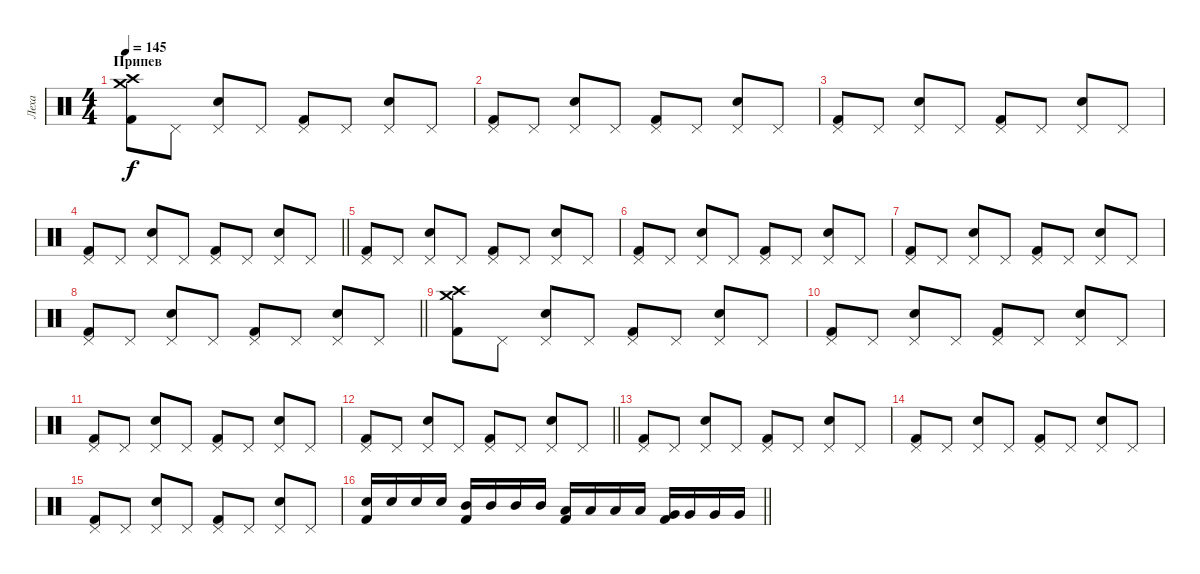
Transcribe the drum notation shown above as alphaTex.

\track ("Леха" "Леха") {instrument percussion}
\staff {score}
\articulation defaults
\ts (4 4)
\section ("" "Припев")
\tempo 145
\clef neutral
\ks c
("Crash medium (hit)" "Crash high (hit)" "Kick (hit) 2").8{dy f} "Pedal Hi-Hat (hit)".8 ("Pedal Hi-Hat (hit)" "Electric Snare (hit)").8 "Pedal Hi-Hat (hit)".8 ("Pedal Hi-Hat (hit)" "Kick (hit) 2").8 "Pedal Hi-Hat (hit)".8 ("Pedal Hi-Hat (hit)" "Electric Snare (hit)").8 "Pedal Hi-Hat (hit)".8 |
("Pedal Hi-Hat (hit)" "Kick (hit) 2").8 "Pedal Hi-Hat (hit)".8 ("Pedal Hi-Hat (hit)" "Electric Snare (hit)").8 "Pedal Hi-Hat (hit)".8 ("Pedal Hi-Hat (hit)" "Kick (hit) 2").8 "Pedal Hi-Hat (hit)".8 ("Pedal Hi-Hat (hit)" "Electric Snare (hit)").8 "Pedal Hi-Hat (hit)".8 |
("Pedal Hi-Hat (hit)" "Kick (hit) 2").8 "Pedal Hi-Hat (hit)".8 ("Pedal Hi-Hat (hit)" "Electric Snare (hit)").8 "Pedal Hi-Hat (hit)".8 ("Pedal Hi-Hat (hit)" "Kick (hit) 2").8 "Pedal Hi-Hat (hit)".8 ("Pedal Hi-Hat (hit)" "Electric Snare (hit)").8 "Pedal Hi-Hat (hit)".8 |
\barLineRight lightlight
("Pedal Hi-Hat (hit)" "Kick (hit) 2").8 "Pedal Hi-Hat (hit)".8 ("Pedal Hi-Hat (hit)" "Electric Snare (hit)").8 "Pedal Hi-Hat (hit)".8 ("Pedal Hi-Hat (hit)" "Kick (hit) 2").8 "Pedal Hi-Hat (hit)".8 ("Pedal Hi-Hat (hit)" "Electric Snare (hit)").8 "Pedal Hi-Hat (hit)".8 |
("Pedal Hi-Hat (hit)" "Kick (hit) 2").8 "Pedal Hi-Hat (hit)".8 ("Pedal Hi-Hat (hit)" "Electric Snare (hit)").8 "Pedal Hi-Hat (hit)".8 ("Pedal Hi-Hat (hit)" "Kick (hit) 2").8 "Pedal Hi-Hat (hit)".8 ("Pedal Hi-Hat (hit)" "Electric Snare (hit)").8 "Pedal Hi-Hat (hit)".8 |
("Pedal Hi-Hat (hit)" "Kick (hit) 2").8 "Pedal Hi-Hat (hit)".8 ("Pedal Hi-Hat (hit)" "Electric Snare (hit)").8 "Pedal Hi-Hat (hit)".8 ("Pedal Hi-Hat (hit)" "Kick (hit) 2").8 "Pedal Hi-Hat (hit)".8 ("Pedal Hi-Hat (hit)" "Electric Snare (hit)").8 "Pedal Hi-Hat (hit)".8 |
("Pedal Hi-Hat (hit)" "Kick (hit) 2").8 "Pedal Hi-Hat (hit)".8 ("Pedal Hi-Hat (hit)" "Electric Snare (hit)").8 "Pedal Hi-Hat (hit)".8 ("Pedal Hi-Hat (hit)" "Kick (hit) 2").8 "Pedal Hi-Hat (hit)".8 ("Pedal Hi-Hat (hit)" "Electric Snare (hit)").8 "Pedal Hi-Hat (hit)".8 |
\barLineRight lightlight
("Pedal Hi-Hat (hit)" "Kick (hit) 2").8 "Pedal Hi-Hat (hit)".8 ("Pedal Hi-Hat (hit)" "Electric Snare (hit)").8 "Pedal Hi-Hat (hit)".8 ("Pedal Hi-Hat (hit)" "Kick (hit) 2").8 "Pedal Hi-Hat (hit)".8 ("Pedal Hi-Hat (hit)" "Electric Snare (hit)").8 "Pedal Hi-Hat (hit)".8 |
("Crash medium (hit)" "Crash high (hit)" "Kick (hit) 2").8 "Pedal Hi-Hat (hit)".8 ("Pedal Hi-Hat (hit)" "Electric Snare (hit)").8 "Pedal Hi-Hat (hit)".8 ("Pedal Hi-Hat (hit)" "Kick (hit) 2").8 "Pedal Hi-Hat (hit)".8 ("Pedal Hi-Hat (hit)" "Electric Snare (hit)").8 "Pedal Hi-Hat (hit)".8 |
("Pedal Hi-Hat (hit)" "Kick (hit) 2").8 "Pedal Hi-Hat (hit)".8 ("Pedal Hi-Hat (hit)" "Electric Snare (hit)").8 "Pedal Hi-Hat (hit)".8 ("Pedal Hi-Hat (hit)" "Kick (hit) 2").8 "Pedal Hi-Hat (hit)".8 ("Pedal Hi-Hat (hit)" "Electric Snare (hit)").8 "Pedal Hi-Hat (hit)".8 |
("Pedal Hi-Hat (hit)" "Kick (hit) 2").8 "Pedal Hi-Hat (hit)".8 ("Pedal Hi-Hat (hit)" "Electric Snare (hit)").8 "Pedal Hi-Hat (hit)".8 ("Pedal Hi-Hat (hit)" "Kick (hit) 2").8 "Pedal Hi-Hat (hit)".8 ("Pedal Hi-Hat (hit)" "Electric Snare (hit)").8 "Pedal Hi-Hat (hit)".8 |
\barLineRight lightlight
("Pedal Hi-Hat (hit)" "Kick (hit) 2").8 "Pedal Hi-Hat (hit)".8 ("Pedal Hi-Hat (hit)" "Electric Snare (hit)").8 "Pedal Hi-Hat (hit)".8 ("Pedal Hi-Hat (hit)" "Kick (hit) 2").8 "Pedal Hi-Hat (hit)".8 ("Pedal Hi-Hat (hit)" "Electric Snare (hit)").8 "Pedal Hi-Hat (hit)".8 |
("Pedal Hi-Hat (hit)" "Kick (hit) 2").8 "Pedal Hi-Hat (hit)".8 ("Pedal Hi-Hat (hit)" "Electric Snare (hit)").8 "Pedal Hi-Hat (hit)".8 ("Pedal Hi-Hat (hit)" "Kick (hit) 2").8 "Pedal Hi-Hat (hit)".8 ("Pedal Hi-Hat (hit)" "Electric Snare (hit)").8 "Pedal Hi-Hat (hit)".8 |
("Pedal Hi-Hat (hit)" "Kick (hit) 2").8 "Pedal Hi-Hat (hit)".8 ("Pedal Hi-Hat (hit)" "Electric Snare (hit)").8 "Pedal Hi-Hat (hit)".8 ("Pedal Hi-Hat (hit)" "Kick (hit) 2").8 "Pedal Hi-Hat (hit)".8 ("Pedal Hi-Hat (hit)" "Electric Snare (hit)").8 "Pedal Hi-Hat (hit)".8 |
("Pedal Hi-Hat (hit)" "Kick (hit) 2").8 "Pedal Hi-Hat (hit)".8 ("Pedal Hi-Hat (hit)" "Electric Snare (hit)").8 "Pedal Hi-Hat (hit)".8 ("Pedal Hi-Hat (hit)" "Kick (hit) 2").8 "Pedal Hi-Hat (hit)".8 ("Pedal Hi-Hat (hit)" "Electric Snare (hit)").8 "Pedal Hi-Hat (hit)".8 |
\barLineRight lightlight
("Electric Snare (hit)" "Kick (hit) 2").16 "Electric Snare (hit)".16 "Electric Snare (hit)".16 "Electric Snare (hit)".16 ("Mid Tom (hit)" "Kick (hit) 2").16 "Mid Tom (hit)".16 "Mid Tom (hit)".16 "Mid Tom (hit)".16 ("Low Tom (hit)" "Kick (hit) 2").16 "Low Tom (hit)".16 "Low Tom (hit)".16 "Low Tom (hit)".16 ("Very Low Tom (hit)" "Kick (hit) 2").16 "Very Low Tom (hit)".16 "Very Low Tom (hit)".16 "Very Low Tom (hit)".16
